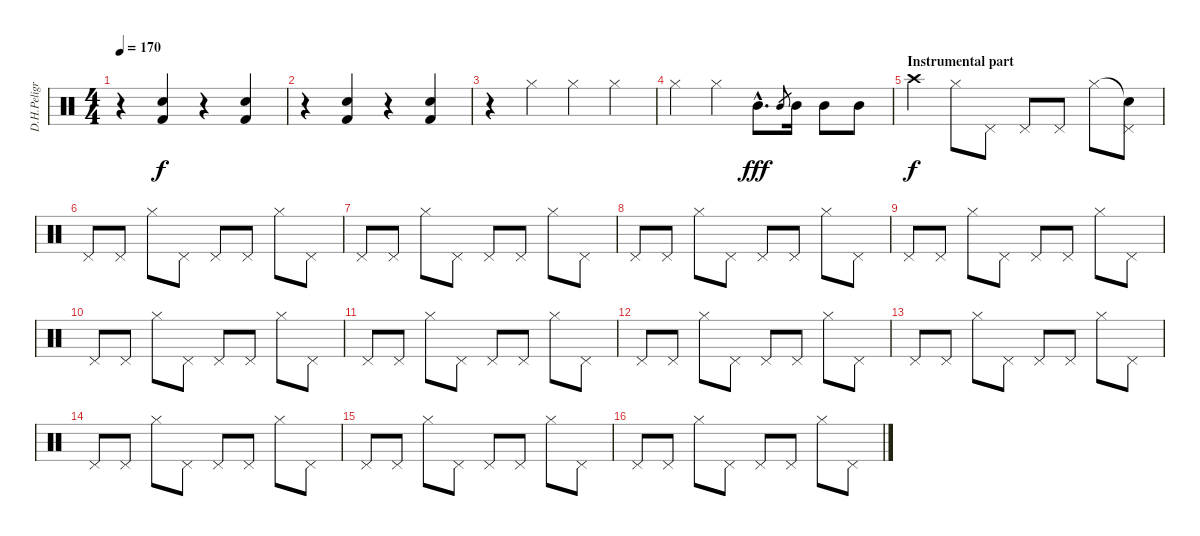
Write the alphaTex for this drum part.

\track ("D.H.Peligro" "D.H.Peligr") {instrument percussion}
\staff {score}
\articulation defaults
\ts (4 4)
\tempo 170
\clef neutral
\ks c
r.4{dy f} ("Electric Snare (hit)" "Kick (hit) 2").4 r.4 ("Electric Snare (hit)" "Kick (hit) 2").4 |
r.4 ("Electric Snare (hit)" "Kick (hit) 2").4 r.4 ("Electric Snare (hit)" "Kick (hit) 2").4 |
r.4 "Hi-Hat (closed)".4 "Hi-Hat (closed)".4 "Hi-Hat (closed)".4 |
"Hi-Hat (closed)".4 "Hi-Hat (closed)".4 "Mid Tom (hit)"{hac}.8{d dy fff} "Mid Tom (hit)".8{gr} "Mid Tom (hit)".16 "Mid Tom (hit)".8 "Mid Tom (hit)".8 |
\section ("" "Instrumental part")
"Crash high (hit)".4{dy f} "Hi-Hat (closed)".8 "Pedal Hi-Hat (hit)".8 "Pedal Hi-Hat (hit)".8 "Pedal Hi-Hat (hit)".8 "Hi-Hat (closed)".8 ("Snare (hit)"{t} "Pedal Hi-Hat (hit)").8 |
"Pedal Hi-Hat (hit)".8 "Pedal Hi-Hat (hit)".8 "Hi-Hat (closed)".8 "Pedal Hi-Hat (hit)".8 "Pedal Hi-Hat (hit)".8 "Pedal Hi-Hat (hit)".8 "Hi-Hat (closed)".8 "Pedal Hi-Hat (hit)".8 |
"Pedal Hi-Hat (hit)".8 "Pedal Hi-Hat (hit)".8 "Hi-Hat (closed)".8 "Pedal Hi-Hat (hit)".8 "Pedal Hi-Hat (hit)".8 "Pedal Hi-Hat (hit)".8 "Hi-Hat (closed)".8 "Pedal Hi-Hat (hit)".8 |
"Pedal Hi-Hat (hit)".8 "Pedal Hi-Hat (hit)".8 "Hi-Hat (closed)".8 "Pedal Hi-Hat (hit)".8 "Pedal Hi-Hat (hit)".8 "Pedal Hi-Hat (hit)".8 "Hi-Hat (closed)".8 "Pedal Hi-Hat (hit)".8 |
"Pedal Hi-Hat (hit)".8 "Pedal Hi-Hat (hit)".8 "Hi-Hat (closed)".8 "Pedal Hi-Hat (hit)".8 "Pedal Hi-Hat (hit)".8 "Pedal Hi-Hat (hit)".8 "Hi-Hat (closed)".8 "Pedal Hi-Hat (hit)".8 |
"Pedal Hi-Hat (hit)".8 "Pedal Hi-Hat (hit)".8 "Hi-Hat (closed)".8 "Pedal Hi-Hat (hit)".8 "Pedal Hi-Hat (hit)".8 "Pedal Hi-Hat (hit)".8 "Hi-Hat (closed)".8 "Pedal Hi-Hat (hit)".8 |
"Pedal Hi-Hat (hit)".8 "Pedal Hi-Hat (hit)".8 "Hi-Hat (closed)".8 "Pedal Hi-Hat (hit)".8 "Pedal Hi-Hat (hit)".8 "Pedal Hi-Hat (hit)".8 "Hi-Hat (closed)".8 "Pedal Hi-Hat (hit)".8 |
"Pedal Hi-Hat (hit)".8 "Pedal Hi-Hat (hit)".8 "Hi-Hat (closed)".8 "Pedal Hi-Hat (hit)".8 "Pedal Hi-Hat (hit)".8 "Pedal Hi-Hat (hit)".8 "Hi-Hat (closed)".8 "Pedal Hi-Hat (hit)".8 |
"Pedal Hi-Hat (hit)".8 "Pedal Hi-Hat (hit)".8 "Hi-Hat (closed)".8 "Pedal Hi-Hat (hit)".8 "Pedal Hi-Hat (hit)".8 "Pedal Hi-Hat (hit)".8 "Hi-Hat (closed)".8 "Pedal Hi-Hat (hit)".8 |
"Pedal Hi-Hat (hit)".8 "Pedal Hi-Hat (hit)".8 "Hi-Hat (closed)".8 "Pedal Hi-Hat (hit)".8 "Pedal Hi-Hat (hit)".8 "Pedal Hi-Hat (hit)".8 "Hi-Hat (closed)".8 "Pedal Hi-Hat (hit)".8 |
"Pedal Hi-Hat (hit)".8 "Pedal Hi-Hat (hit)".8 "Hi-Hat (closed)".8 "Pedal Hi-Hat (hit)".8 "Pedal Hi-Hat (hit)".8 "Pedal Hi-Hat (hit)".8 "Hi-Hat (closed)".8 "Pedal Hi-Hat (hit)".8 |
"Pedal Hi-Hat (hit)".8 "Pedal Hi-Hat (hit)".8 "Hi-Hat (closed)".8 "Pedal Hi-Hat (hit)".8 "Pedal Hi-Hat (hit)".8 "Pedal Hi-Hat (hit)".8 "Hi-Hat (closed)".8 "Pedal Hi-Hat (hit)".8
